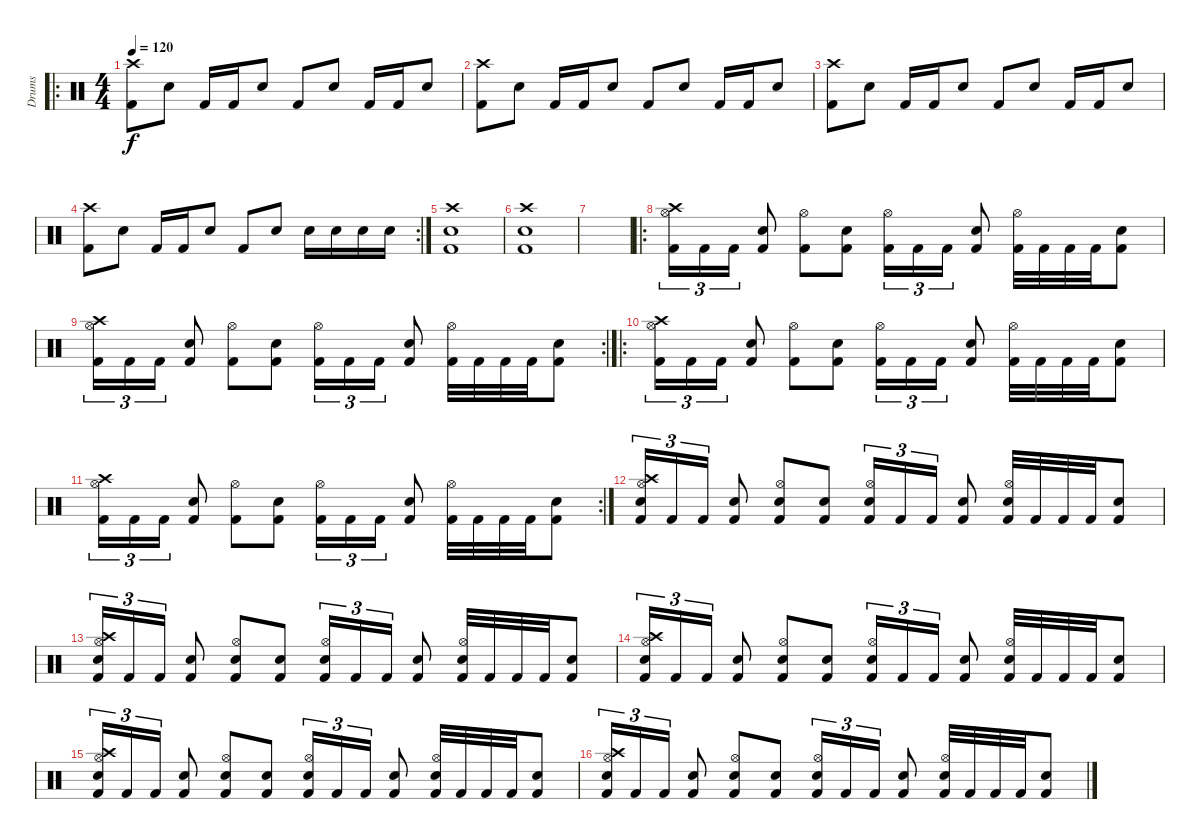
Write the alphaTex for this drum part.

\track ("Drums" "Drums") {instrument percussion}
\staff {score}
\articulation defaults
\ro
\ts (4 4)
\tempo 120
\clef neutral
\ks c
("Kick (hit) 2" "Crash high (hit)").8{dy f} "Electric Snare (hit)".8 "Kick (hit) 2".16 "Kick (hit) 2".16 "Electric Snare (hit)".8 "Kick (hit) 2".8 "Electric Snare (hit)".8 "Kick (hit) 2".16 "Kick (hit) 2".16 "Electric Snare (hit)".8 |
("Kick (hit) 2" "Crash high (hit)").8 "Electric Snare (hit)".8 "Kick (hit) 2".16 "Kick (hit) 2".16 "Electric Snare (hit)".8 "Kick (hit) 2".8 "Electric Snare (hit)".8 "Kick (hit) 2".16 "Kick (hit) 2".16 "Electric Snare (hit)".8 |
("Kick (hit) 2" "Crash high (hit)").8 "Electric Snare (hit)".8 "Kick (hit) 2".16 "Kick (hit) 2".16 "Electric Snare (hit)".8 "Kick (hit) 2".8 "Electric Snare (hit)".8 "Kick (hit) 2".16 "Kick (hit) 2".16 "Electric Snare (hit)".8 |
\rc 2
("Kick (hit) 2" "Crash high (hit)").8 "Electric Snare (hit)".8 "Kick (hit) 2".16 "Kick (hit) 2".16 "Electric Snare (hit)".8 "Kick (hit) 2".8 "Electric Snare (hit)".8 "Electric Snare (hit)".16 "Electric Snare (hit)".16 "Electric Snare (hit)".16 "Electric Snare (hit)".16 |
("Electric Snare (hit)" "Crash high (hit)" "Kick (hit) 2").1 |
("Crash high (hit)" "Electric Snare (hit)" "Kick (hit) 2").1 |
|
\ro
("Crash high (hit)" "Kick (hit) 2" "Hi-Hat (open)").16{tu (3 2)} "Kick (hit) 2".16{tu (3 2)} "Kick (hit) 2".16{tu (3 2)} ("Electric Snare (hit)" "Kick (hit) 2").8 ("Kick (hit) 2" "Hi-Hat (open)").8 ("Electric Snare (hit)" "Kick (hit) 2").8 ("Kick (hit) 2" "Hi-Hat (open)").16{tu (3 2)} "Kick (hit) 2".16{tu (3 2)} "Kick (hit) 2".16{tu (3 2)} ("Electric Snare (hit)" "Kick (hit) 2").8 ("Hi-Hat (open)" "Kick (hit) 2").32 "Kick (hit) 2".32 "Kick (hit) 2".32 "Kick (hit) 2".32 ("Electric Snare (hit)" "Kick (hit) 2").8 |
\rc 2
("Crash high (hit)" "Kick (hit) 2" "Hi-Hat (open)").16{tu (3 2)} "Kick (hit) 2".16{tu (3 2)} "Kick (hit) 2".16{tu (3 2)} ("Electric Snare (hit)" "Kick (hit) 2").8 ("Kick (hit) 2" "Hi-Hat (open)").8 ("Electric Snare (hit)" "Kick (hit) 2").8 ("Kick (hit) 2" "Hi-Hat (open)").16{tu (3 2)} "Kick (hit) 2".16{tu (3 2)} "Kick (hit) 2".16{tu (3 2)} ("Electric Snare (hit)" "Kick (hit) 2").8 ("Hi-Hat (open)" "Kick (hit) 2").32 "Kick (hit) 2".32 "Kick (hit) 2".32 "Kick (hit) 2".32 ("Electric Snare (hit)" "Kick (hit) 2").8 |
\ro
("Crash high (hit)" "Kick (hit) 2" "Hi-Hat (open)").16{tu (3 2)} "Kick (hit) 2".16{tu (3 2)} "Kick (hit) 2".16{tu (3 2)} ("Electric Snare (hit)" "Kick (hit) 2").8 ("Kick (hit) 2" "Hi-Hat (open)").8 ("Electric Snare (hit)" "Kick (hit) 2").8 ("Kick (hit) 2" "Hi-Hat (open)").16{tu (3 2)} "Kick (hit) 2".16{tu (3 2)} "Kick (hit) 2".16{tu (3 2)} ("Electric Snare (hit)" "Kick (hit) 2").8 ("Hi-Hat (open)" "Kick (hit) 2").32 "Kick (hit) 2".32 "Kick (hit) 2".32 "Kick (hit) 2".32 ("Electric Snare (hit)" "Kick (hit) 2").8 |
\rc 2
("Crash high (hit)" "Kick (hit) 2" "Hi-Hat (open)").16{tu (3 2)} "Kick (hit) 2".16{tu (3 2)} "Kick (hit) 2".16{tu (3 2)} ("Electric Snare (hit)" "Kick (hit) 2").8 ("Kick (hit) 2" "Hi-Hat (open)").8 ("Electric Snare (hit)" "Kick (hit) 2").8 ("Kick (hit) 2" "Hi-Hat (open)").16{tu (3 2)} "Kick (hit) 2".16{tu (3 2)} "Kick (hit) 2".16{tu (3 2)} ("Electric Snare (hit)" "Kick (hit) 2").8 ("Hi-Hat (open)" "Kick (hit) 2").32 "Kick (hit) 2".32 "Kick (hit) 2".32 "Kick (hit) 2".32 ("Electric Snare (hit)" "Kick (hit) 2").8 |
("Crash high (hit)" "Kick (hit) 2" "Hi-Hat (open)" "Hand Clap (hit)").16{tu (3 2)} "Kick (hit) 2".16{tu (3 2)} "Kick (hit) 2".16{tu (3 2)} ("Electric Snare (hit)" "Kick (hit) 2").8 ("Kick (hit) 2" "Hi-Hat (open)" "Hand Clap (hit)").8 ("Electric Snare (hit)" "Kick (hit) 2").8 ("Kick (hit) 2" "Hi-Hat (open)" "Hand Clap (hit)").16{tu (3 2)} "Kick (hit) 2".16{tu (3 2)} "Kick (hit) 2".16{tu (3 2)} ("Electric Snare (hit)" "Kick (hit) 2").8 ("Hi-Hat (open)" "Kick (hit) 2" "Hand Clap (hit)").32 "Kick (hit) 2".32 "Kick (hit) 2".32 "Kick (hit) 2".32 ("Electric Snare (hit)" "Kick (hit) 2").8 |
("Crash high (hit)" "Kick (hit) 2" "Hi-Hat (open)" "Hand Clap (hit)").16{tu (3 2)} "Kick (hit) 2".16{tu (3 2)} "Kick (hit) 2".16{tu (3 2)} ("Electric Snare (hit)" "Kick (hit) 2").8 ("Kick (hit) 2" "Hi-Hat (open)" "Hand Clap (hit)").8 ("Electric Snare (hit)" "Kick (hit) 2").8 ("Kick (hit) 2" "Hi-Hat (open)" "Hand Clap (hit)").16{tu (3 2)} "Kick (hit) 2".16{tu (3 2)} "Kick (hit) 2".16{tu (3 2)} ("Electric Snare (hit)" "Kick (hit) 2").8 ("Hi-Hat (open)" "Kick (hit) 2" "Hand Clap (hit)").32 "Kick (hit) 2".32 "Kick (hit) 2".32 "Kick (hit) 2".32 ("Electric Snare (hit)" "Kick (hit) 2").8 |
("Crash high (hit)" "Kick (hit) 2" "Hi-Hat (open)" "Hand Clap (hit)").16{tu (3 2)} "Kick (hit) 2".16{tu (3 2)} "Kick (hit) 2".16{tu (3 2)} ("Electric Snare (hit)" "Kick (hit) 2").8 ("Kick (hit) 2" "Hi-Hat (open)" "Hand Clap (hit)").8 ("Electric Snare (hit)" "Kick (hit) 2").8 ("Kick (hit) 2" "Hi-Hat (open)" "Hand Clap (hit)").16{tu (3 2)} "Kick (hit) 2".16{tu (3 2)} "Kick (hit) 2".16{tu (3 2)} ("Electric Snare (hit)" "Kick (hit) 2").8 ("Hi-Hat (open)" "Kick (hit) 2" "Hand Clap (hit)").32 "Kick (hit) 2".32 "Kick (hit) 2".32 "Kick (hit) 2".32 ("Electric Snare (hit)" "Kick (hit) 2").8 |
("Crash high (hit)" "Kick (hit) 2" "Hi-Hat (open)" "Hand Clap (hit)").16{tu (3 2)} "Kick (hit) 2".16{tu (3 2)} "Kick (hit) 2".16{tu (3 2)} ("Electric Snare (hit)" "Kick (hit) 2").8 ("Kick (hit) 2" "Hi-Hat (open)" "Hand Clap (hit)").8 ("Electric Snare (hit)" "Kick (hit) 2").8 ("Kick (hit) 2" "Hi-Hat (open)" "Hand Clap (hit)").16{tu (3 2)} "Kick (hit) 2".16{tu (3 2)} "Kick (hit) 2".16{tu (3 2)} ("Electric Snare (hit)" "Kick (hit) 2").8 ("Hi-Hat (open)" "Kick (hit) 2" "Hand Clap (hit)").32 "Kick (hit) 2".32 "Kick (hit) 2".32 "Kick (hit) 2".32 ("Electric Snare (hit)" "Kick (hit) 2").8 |
("Crash high (hit)" "Kick (hit) 2" "Hi-Hat (open)" "Hand Clap (hit)").16{tu (3 2)} "Kick (hit) 2".16{tu (3 2)} "Kick (hit) 2".16{tu (3 2)} ("Electric Snare (hit)" "Kick (hit) 2").8 ("Kick (hit) 2" "Hi-Hat (open)" "Hand Clap (hit)").8 ("Electric Snare (hit)" "Kick (hit) 2").8 ("Kick (hit) 2" "Hi-Hat (open)" "Hand Clap (hit)").16{tu (3 2)} "Kick (hit) 2".16{tu (3 2)} "Kick (hit) 2".16{tu (3 2)} ("Electric Snare (hit)" "Kick (hit) 2").8 ("Hi-Hat (open)" "Kick (hit) 2" "Hand Clap (hit)").32 "Kick (hit) 2".32 "Kick (hit) 2".32 "Kick (hit) 2".32 ("Electric Snare (hit)" "Kick (hit) 2").8
